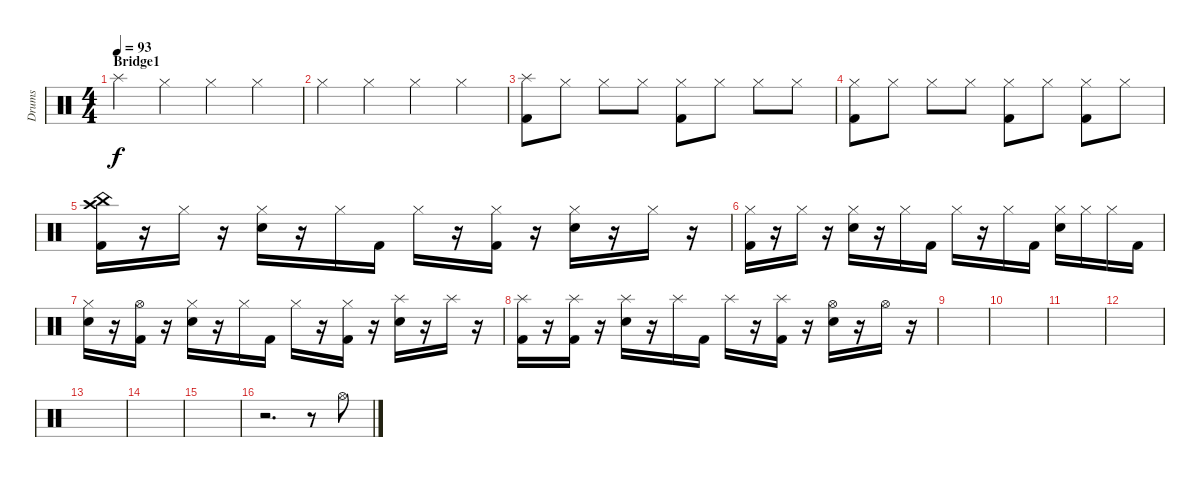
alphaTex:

\track ("Drums" "Drums") {instrument percussion}
\staff {score}
\articulation defaults
\ts (4 4)
\section ("" "Bridge1")
\tempo 93
\clef neutral
\ks c "Splash (hit)".4{dy f} "Hi-Hat (closed)".4 "Hi-Hat (closed)".4 "Hi-Hat (closed)".4
|
"Hi-Hat (closed)".4 "Hi-Hat (closed)".4 "Hi-Hat (closed)".4 "Hi-Hat (closed)".4 |
("Splash (hit)" "Kick (hit) 2").8 "Hi-Hat (closed)".8 "Hi-Hat (closed)".8 "Hi-Hat (closed)".8 ("Hi-Hat (closed)" "Kick (hit) 2").8 "Hi-Hat (closed)".8 "Hi-Hat (closed)".8 "Hi-Hat (closed)".8 |
("Hi-Hat (closed)" "Kick (hit) 2").8 "Hi-Hat (closed)".8 "Hi-Hat (closed)".8 "Hi-Hat (closed)".8 ("Hi-Hat (closed)" "Kick (hit) 2").8 "Hi-Hat (closed)".8 ("Hi-Hat (closed)" "Kick (hit) 2").8 "Hi-Hat (closed)".8 |
("Crash high (hit)" "China (hit)" "Kick (hit) 2").16 r.16 "Hi-Hat (closed)".16 r.16 ("Hi-Hat (closed)" "Snare (hit) 2").16 r.16 "Hi-Hat (closed)".16 "Kick (hit) 2".16 "Hi-Hat (closed)".16 r.16 ("Hi-Hat (closed)" "Kick (hit) 2").16 r.16 ("Hi-Hat (closed)" "Snare (hit) 2").16 r.16 "Hi-Hat (closed)".16 r.16 |
("Hi-Hat (closed)" "Kick (hit) 2").16 r.16 "Hi-Hat (closed)".16 r.16 ("Hi-Hat (closed)" "Snare (hit) 2").16 r.16 "Hi-Hat (closed)".16 "Kick (hit) 2".16 "Hi-Hat (closed)".16 r.16 "Hi-Hat (closed)".16 "Kick (hit) 2".16 ("Hi-Hat (closed)" "Snare (hit) 2").16 "Hi-Hat (closed)".16 "Hi-Hat (closed)".16 "Kick (hit) 2".16 |
("Hi-Hat (closed)" "Snare (hit) 2").16 r.16 ("Hi-Hat (open)" "Kick (hit) 2").16 r.16 ("Hi-Hat (closed)" "Snare (hit) 2").16 r.16 "Hi-Hat (closed)".16 "Kick (hit) 2".16 "Hi-Hat (closed)".16 r.16 ("Hi-Hat (closed)" "Kick (hit) 2").16 r.16 ("Splash (hit)" "Snare (hit) 2").16 r.16 "Splash (hit)".16 r.16 |
("Splash (hit)" "Kick (hit) 2").16 r.16 ("Splash (hit)" "Kick (hit) 2").16 r.16 ("Splash (hit)" "Snare (hit) 2").16 r.16 "Splash (hit)".16 "Kick (hit) 2".16 "Splash (hit)".16 r.16 ("Splash (hit)" "Kick (hit) 2").16 r.16 ("Hi-Hat (open)" "Snare (hit) 2").16 r.16 "Hi-Hat (open)".16 r.16 |
|
|
|
|
|
|
|
r.2{d} r.8 "Hi-Hat (open)".8
